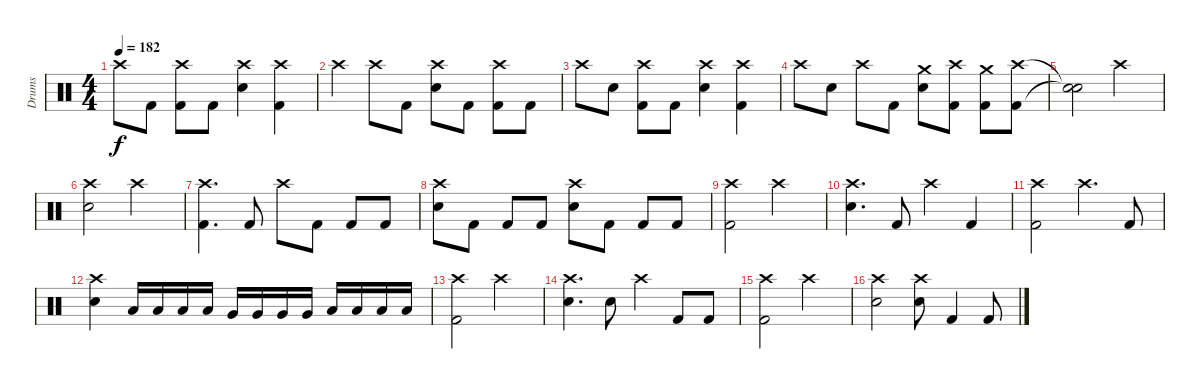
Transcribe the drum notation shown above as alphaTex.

\track ("Drums" "Drums") {instrument percussion}
\staff {score}
\articulation defaults
\ts (4 4)
\tempo 182
\clef neutral
\ks c "Crash high (hit)".8{dy f} "Kick (hit) 2".8
("Crash high (hit)" "Kick (hit) 2").8 "Kick (hit) 2".8 ("Crash high (hit)" "Electric Snare (hit)").4 ("Crash high (hit)" "Kick (hit) 2").4 |
"Crash high (hit)".4 "Crash high (hit)".8 "Kick (hit) 2".8 ("Crash high (hit)" "Electric Snare (hit)").8 "Kick (hit) 2".8 ("Crash high (hit)" "Kick (hit) 2").8 "Kick (hit) 2".8 |
"Crash high (hit)".8 "Electric Snare (hit)".8 ("Crash high (hit)" "Kick (hit) 2").8 "Kick (hit) 2".8 ("Crash high (hit)" "Electric Snare (hit)").4 ("Crash high (hit)" "Kick (hit) 2").4 |
"Crash high (hit)".8 "Electric Snare (hit)".8 "Crash high (hit)".8 "Kick (hit) 2".8 ("Crash medium (hit)" "Electric Snare (hit)").8 ("Crash high (hit)" "Kick (hit) 2").8 ("Crash medium (hit)" "Kick (hit) 2").8 ("Crash high (hit)" "Kick (hit) 2").8 |
("Snare (hit)"{t} "Snare (hit)"{t}).2 "Crash high (hit)".2 |
("Crash high (hit)" "Electric Snare (hit)").2 "Crash high (hit)".2 |
("Crash high (hit)" "Kick (hit) 2").4{d} "Kick (hit) 2".8 "Crash high (hit)".8 "Kick (hit) 2".8 "Kick (hit) 2".8 "Kick (hit) 2".8 |
("Crash high (hit)" "Electric Snare (hit)").8 "Kick (hit) 2".8 "Kick (hit) 2".8 "Kick (hit) 2".8 ("Crash high (hit)" "Electric Snare (hit)").8 "Kick (hit) 2".8 "Kick (hit) 2".8 "Kick (hit) 2".8 |
("Crash high (hit)" "Kick (hit) 2").2 "Crash high (hit)".2 |
("Crash high (hit)" "Electric Snare (hit)").4{d} "Kick (hit) 2".8 "Crash high (hit)".4 "Kick (hit) 2".4 |
("Crash high (hit)" "Kick (hit) 2").2 "Crash high (hit)".4{d} "Kick (hit) 2".8 |
("Crash high (hit)" "Electric Snare (hit)").4 "Low Tom (hit)".16 "Low Tom (hit)".16 "Low Tom (hit)".16 "Low Tom (hit)".16 "Very Low Tom (hit)".16 "Very Low Tom (hit)".16 "Very Low Tom (hit)".16 "Very Low Tom (hit)".16 "Low Floor Tom (hit)".16 "Low Floor Tom (hit)".16 "Low Floor Tom (hit)".16 "Low Floor Tom (hit)".16 |
("Crash high (hit)" "Kick (hit) 2").2 "Crash high (hit)".2 |
("Crash high (hit)" "Electric Snare (hit)").4{d} "Electric Snare (hit)".8 "Crash high (hit)".4 "Kick (hit) 2".8 "Kick (hit) 2".8 |
("Crash high (hit)" "Kick (hit) 2").2 "Crash high (hit)".2 |
("Crash high (hit)" "Electric Snare (hit)").2 ("Crash high (hit)" "Electric Snare (hit)").8 "Kick (hit) 2".4 "Kick (hit) 2".8
